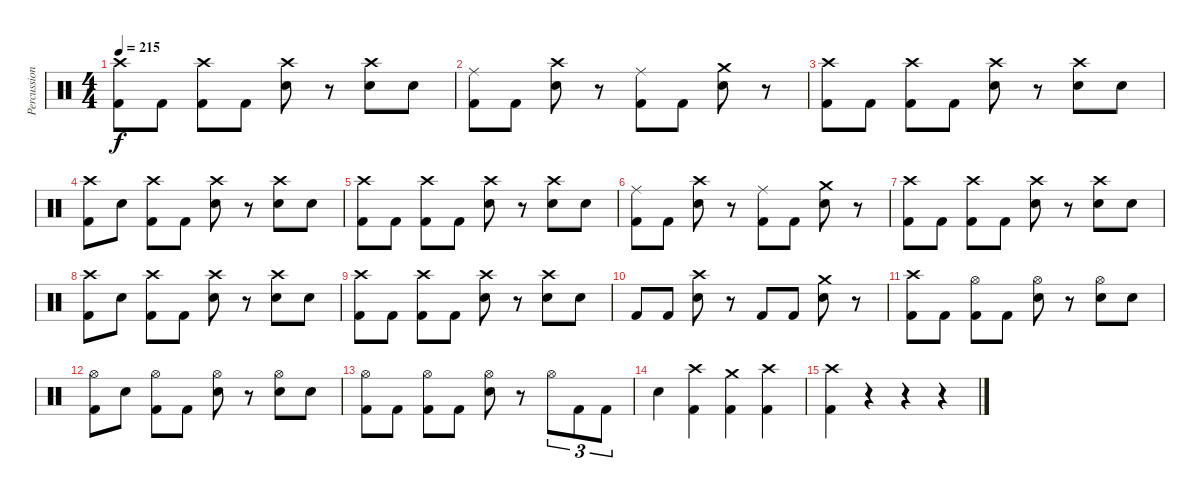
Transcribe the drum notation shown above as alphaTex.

\track ("Percussion" "Percussion") {instrument percussion}
\staff {score}
\articulation defaults
\ts (4 4)
\tempo 215
\clef neutral
\ks c
("Crash high (hit)" "Kick (hit) 2").8{dy f} "Kick (hit) 2".8 ("Crash high (hit)" "Kick (hit) 2").8 "Kick (hit) 2".8 ("Crash high (hit)" "Electric Snare (hit)").8 r.8 ("Crash high (hit)" "Electric Snare (hit)").8 "Electric Snare (hit)".8 |
("Ride (middle)" "Kick (hit) 2").8 "Kick (hit) 2".8 ("Crash high (hit)" "Electric Snare (hit)").8 r.8 ("Ride (middle)" "Kick (hit) 2").8 "Kick (hit) 2".8 ("Crash medium (hit)" "Electric Snare (hit)").8 r.8 |
("Crash high (hit)" "Kick (hit) 2").8 "Kick (hit) 2".8 ("Crash high (hit)" "Kick (hit) 2").8 "Kick (hit) 2".8 ("Crash high (hit)" "Electric Snare (hit)").8 r.8 ("Crash high (hit)" "Electric Snare (hit)").8 "Electric Snare (hit)".8 |
("Crash high (hit)" "Kick (hit) 2").8 "Electric Snare (hit)".8 ("Crash high (hit)" "Kick (hit) 2").8 "Kick (hit) 2".8 ("Crash high (hit)" "Electric Snare (hit)").8 r.8 ("Crash high (hit)" "Electric Snare (hit)").8 "Electric Snare (hit)".8 |
("Crash high (hit)" "Kick (hit) 2").8 "Kick (hit) 2".8 ("Crash high (hit)" "Kick (hit) 2").8 "Kick (hit) 2".8 ("Crash high (hit)" "Electric Snare (hit)").8 r.8 ("Crash high (hit)" "Electric Snare (hit)").8 "Electric Snare (hit)".8 |
("Ride (middle)" "Kick (hit) 2").8 "Kick (hit) 2".8 ("Crash high (hit)" "Electric Snare (hit)").8 r.8 ("Ride (middle)" "Kick (hit) 2").8 "Kick (hit) 2".8 ("Crash medium (hit)" "Electric Snare (hit)").8 r.8 |
("Crash high (hit)" "Kick (hit) 2").8 "Kick (hit) 2".8 ("Crash high (hit)" "Kick (hit) 2").8 "Kick (hit) 2".8 ("Crash high (hit)" "Electric Snare (hit)").8 r.8 ("Crash high (hit)" "Electric Snare (hit)").8 "Electric Snare (hit)".8 |
("Crash high (hit)" "Kick (hit) 2").8 "Electric Snare (hit)".8 ("Crash high (hit)" "Kick (hit) 2").8 "Kick (hit) 2".8 ("Crash high (hit)" "Electric Snare (hit)").8 r.8 ("Crash high (hit)" "Electric Snare (hit)").8 "Electric Snare (hit)".8 |
("Crash high (hit)" "Kick (hit) 2").8 "Kick (hit) 2".8 ("Crash high (hit)" "Kick (hit) 2").8 "Kick (hit) 2".8 ("Crash high (hit)" "Electric Snare (hit)").8 r.8 ("Crash high (hit)" "Electric Snare (hit)").8 "Electric Snare (hit)".8 |
"Kick (hit) 2".8 "Kick (hit) 2".8 ("Crash high (hit)" "Electric Snare (hit)").8 r.8 "Kick (hit) 2".8 "Kick (hit) 2".8 ("Crash medium (hit)" "Electric Snare (hit)").8 r.8 |
("Crash high (hit)" "Kick (hit) 2").8 "Kick (hit) 2".8 ("Hi-Hat (open)" "Kick (hit) 2").8 "Kick (hit) 2".8 ("Hi-Hat (open)" "Electric Snare (hit)").8 r.8 ("Hi-Hat (open)" "Electric Snare (hit)").8 "Electric Snare (hit)".8 |
("Hi-Hat (open)" "Kick (hit) 2").8 "Electric Snare (hit)".8 ("Hi-Hat (open)" "Kick (hit) 2").8 "Kick (hit) 2".8 ("Hi-Hat (open)" "Electric Snare (hit)").8 r.8 ("Hi-Hat (open)" "Electric Snare (hit)").8 "Electric Snare (hit)".8 |
("Hi-Hat (open)" "Kick (hit) 2").8 "Kick (hit) 2".8 ("Hi-Hat (open)" "Kick (hit) 2").8 "Kick (hit) 2".8 ("Hi-Hat (open)" "Electric Snare (hit)").8 r.8 "Hi-Hat (open)".8{tu (3 2)} "Kick (hit) 2".8{tu (3 2)} "Kick (hit) 2".8{tu (3 2)} |
"Electric Snare (hit)".4 ("Crash high (hit)" "Kick (hit) 2").4 ("Crash medium (hit)" "Kick (hit) 2").4 ("Crash high (hit)" "Kick (hit) 2").4 |
("Crash high (hit)" "Kick (hit) 2").4 r.4{volume 0} r.4 r.4
